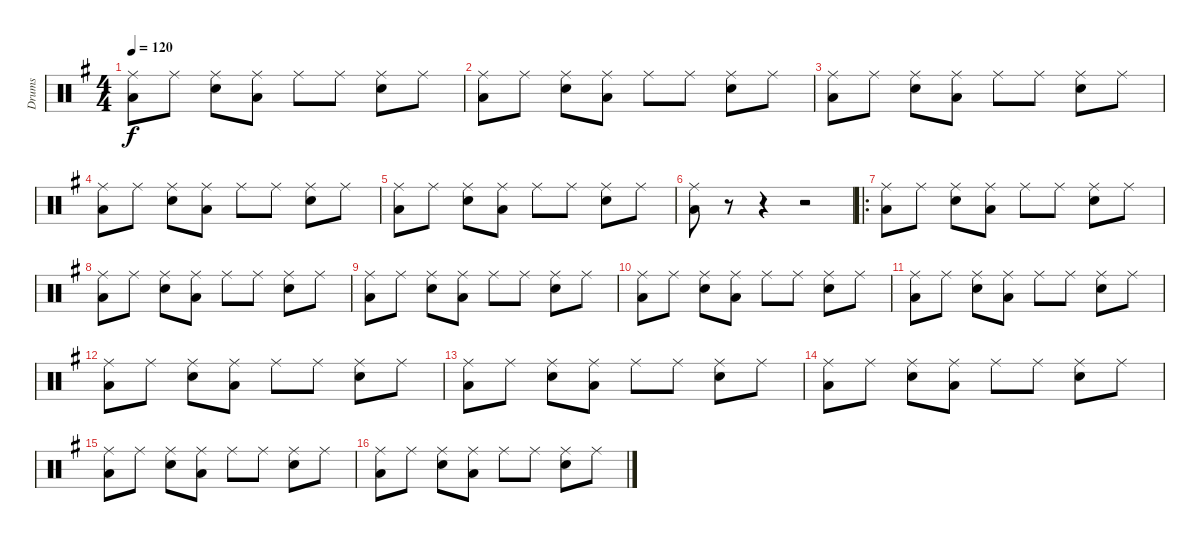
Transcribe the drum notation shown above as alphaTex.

\track ("Drums" "Drums") {instrument percussion}
\staff {score}
\articulation defaults
\ts (4 4)
\tempo 120
\clef neutral
\ks g
("Ride (middle)" "Low Floor Tom (hit)").8{dy f} "Ride (middle)".8 ("Ride (middle)" "Snare (hit) 2").8 ("Ride (middle)" "Low Floor Tom (hit)").8 "Ride (middle)".8 "Ride (middle)".8 ("Ride (middle)" "Snare (hit) 2").8 "Ride (middle)".8 |
("Ride (middle)" "Low Floor Tom (hit)").8 "Ride (middle)".8 ("Ride (middle)" "Snare (hit) 2").8 ("Ride (middle)" "Low Floor Tom (hit)").8 "Ride (middle)".8 "Ride (middle)".8 ("Ride (middle)" "Snare (hit) 2").8 "Ride (middle)".8 |
("Ride (middle)" "Low Floor Tom (hit)").8 "Ride (middle)".8 ("Ride (middle)" "Snare (hit) 2").8 ("Ride (middle)" "Low Floor Tom (hit)").8 "Ride (middle)".8 "Ride (middle)".8 ("Ride (middle)" "Snare (hit) 2").8 "Ride (middle)".8 |
("Ride (middle)" "Low Floor Tom (hit)").8 "Ride (middle)".8 ("Ride (middle)" "Snare (hit) 2").8 ("Ride (middle)" "Low Floor Tom (hit)").8 "Ride (middle)".8 "Ride (middle)".8 ("Ride (middle)" "Snare (hit) 2").8 "Ride (middle)".8 |
("Ride (middle)" "Low Floor Tom (hit)").8 "Ride (middle)".8 ("Ride (middle)" "Snare (hit) 2").8 ("Ride (middle)" "Low Floor Tom (hit)").8 "Ride (middle)".8 "Ride (middle)".8 ("Ride (middle)" "Snare (hit) 2").8 "Ride (middle)".8 |
("Ride (middle)" "Low Floor Tom (hit)").8 r.8 r.4 r.2 |
\ro
("Ride (middle)" "Low Floor Tom (hit)").8 "Ride (middle)".8 ("Ride (middle)" "Snare (hit) 2").8 ("Ride (middle)" "Low Floor Tom (hit)").8 "Ride (middle)".8 "Ride (middle)".8 ("Ride (middle)" "Snare (hit) 2").8 "Ride (middle)".8 |
("Ride (middle)" "Low Floor Tom (hit)").8 "Ride (middle)".8 ("Ride (middle)" "Snare (hit) 2").8 ("Ride (middle)" "Low Floor Tom (hit)").8 "Ride (middle)".8 "Ride (middle)".8 ("Ride (middle)" "Snare (hit) 2").8 "Ride (middle)".8 |
("Ride (middle)" "Low Floor Tom (hit)").8 "Ride (middle)".8 ("Ride (middle)" "Snare (hit) 2").8 ("Ride (middle)" "Low Floor Tom (hit)").8 "Ride (middle)".8 "Ride (middle)".8 ("Ride (middle)" "Snare (hit) 2").8 "Ride (middle)".8 |
("Ride (middle)" "Low Floor Tom (hit)").8 "Ride (middle)".8 ("Ride (middle)" "Snare (hit) 2").8 ("Ride (middle)" "Low Floor Tom (hit)").8 "Ride (middle)".8 "Ride (middle)".8 ("Ride (middle)" "Snare (hit) 2").8 "Ride (middle)".8 |
("Ride (middle)" "Low Floor Tom (hit)").8 "Ride (middle)".8 ("Ride (middle)" "Snare (hit) 2").8 ("Ride (middle)" "Low Floor Tom (hit)").8 "Ride (middle)".8 "Ride (middle)".8 ("Ride (middle)" "Snare (hit) 2").8 "Ride (middle)".8 |
("Ride (middle)" "Low Floor Tom (hit)").8 "Ride (middle)".8 ("Ride (middle)" "Snare (hit) 2").8 ("Ride (middle)" "Low Floor Tom (hit)").8 "Ride (middle)".8 "Ride (middle)".8 ("Ride (middle)" "Snare (hit) 2").8 "Ride (middle)".8 |
("Ride (middle)" "Low Floor Tom (hit)").8 "Ride (middle)".8 ("Ride (middle)" "Snare (hit) 2").8 ("Ride (middle)" "Low Floor Tom (hit)").8 "Ride (middle)".8 "Ride (middle)".8 ("Ride (middle)" "Snare (hit) 2").8 "Ride (middle)".8 |
("Ride (middle)" "Low Floor Tom (hit)").8 "Ride (middle)".8 ("Ride (middle)" "Snare (hit) 2").8 ("Ride (middle)" "Low Floor Tom (hit)").8 "Ride (middle)".8 "Ride (middle)".8 ("Ride (middle)" "Snare (hit) 2").8 "Ride (middle)".8 |
("Ride (middle)" "Low Floor Tom (hit)").8 "Ride (middle)".8 ("Ride (middle)" "Snare (hit) 2").8 ("Ride (middle)" "Low Floor Tom (hit)").8 "Ride (middle)".8 "Ride (middle)".8 ("Ride (middle)" "Snare (hit) 2").8 "Ride (middle)".8 |
("Ride (middle)" "Low Floor Tom (hit)").8 "Ride (middle)".8 ("Ride (middle)" "Snare (hit) 2").8 ("Ride (middle)" "Low Floor Tom (hit)").8 "Ride (middle)".8 "Ride (middle)".8 ("Ride (middle)" "Snare (hit) 2").8 "Ride (middle)".8
